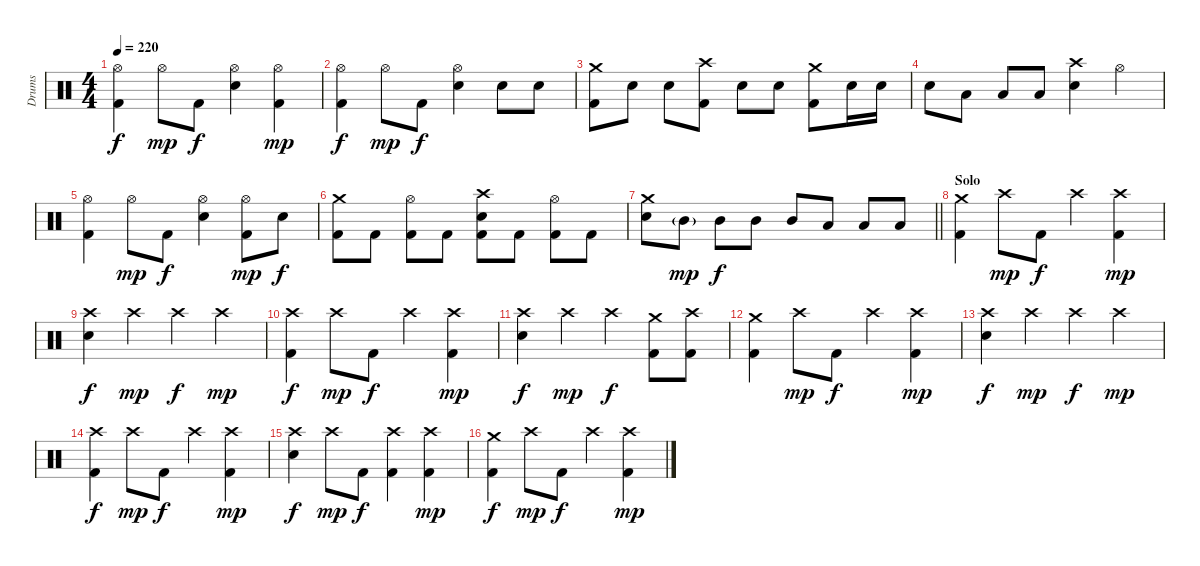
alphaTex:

\track ("Drums" "Drums") {instrument percussion}
\staff {score}
\articulation defaults
\ts (4 4)
\tempo 220
\clef neutral
\ks c
("Hi-Hat (open)" "Kick (hit) 2").4{dy f} "Hi-Hat (open)".8{dy mp} "Kick (hit) 2".8{dy f} ("Hi-Hat (open)" "Electric Snare (hit)").4 ("Hi-Hat (open)" "Kick (hit) 2").4{dy mp} |
("Hi-Hat (open)" "Kick (hit) 2").4{dy f} "Hi-Hat (open)".8{dy mp} "Kick (hit) 2".8{dy f} ("Hi-Hat (open)" "Electric Snare (hit)").4 "Electric Snare (hit)".8 "Electric Snare (hit)".8 |
("Crash medium (hit)" "Kick (hit) 2").8 "Electric Snare (hit)".8 "Electric Snare (hit)".8 ("Crash high (hit)" "Kick (hit) 2").8 "Electric Snare (hit)".8 "Electric Snare (hit)".8 ("Crash medium (hit)" "Kick (hit) 2").8 "Electric Snare (hit)".16 "Electric Snare (hit)".16 |
"Electric Snare (hit)".8 "Low Tom (hit)".8 "Low Tom (hit)".8 "Low Tom (hit)".8 ("Electric Snare (hit)" "Crash high (hit)").4 "Hi-Hat (open)".4 |
("Hi-Hat (open)" "Kick (hit) 2").4 "Hi-Hat (open)".8{dy mp} "Kick (hit) 2".8{dy f} ("Hi-Hat (open)" "Electric Snare (hit)").4 ("Hi-Hat (open)" "Kick (hit) 2").8{dy mp} "Electric Snare (hit)".8{dy f} |
("Kick (hit) 2" "Crash medium (hit)").8 "Kick (hit) 2".8 ("Kick (hit) 2" "Hi-Hat (open)").8 "Kick (hit) 2".8 ("Kick (hit) 2" "Crash high (hit)" "Electric Snare (hit)").8 "Kick (hit) 2".8 ("Kick (hit) 2" "Hi-Hat (open)").8 "Kick (hit) 2".8 |
\barLineRight lightlight
("Crash medium (hit)" "Electric Snare (hit)").8 "Mid Tom (hit)"{g}.8{dy mp} "Mid Tom (hit)".8{dy f} "Mid Tom (hit)".8 "Mid Tom (hit)".8 "Low Tom (hit)".8 "Low Tom (hit)".8 "Low Floor Tom (hit)".8 |
\section ("" "Solo")
("Crash medium (hit)" "Kick (hit) 2").4 "Crash high (hit)".8{dy mp} "Kick (hit) 2".8{dy f} "Crash high (hit)".4 ("Crash high (hit)" "Kick (hit) 2").4{dy mp} |
("Crash high (hit)" "Electric Snare (hit)").4{dy f} "Crash high (hit)".4{dy mp} "Crash high (hit)".4{dy f} "Crash high (hit)".4{dy mp} |
("Crash high (hit)" "Kick (hit) 2").4{dy f} "Crash high (hit)".8{dy mp} "Kick (hit) 2".8{dy f} "Crash high (hit)".4 ("Crash high (hit)" "Kick (hit) 2").4{dy mp} |
("Crash high (hit)" "Electric Snare (hit)").4{dy f} "Crash high (hit)".4{dy mp} "Crash high (hit)".4{dy f} ("Crash medium (hit)" "Kick (hit) 2").8 ("Crash high (hit)" "Kick (hit) 2").8 |
("Crash medium (hit)" "Kick (hit) 2").4 "Crash high (hit)".8{dy mp} "Kick (hit) 2".8{dy f} "Crash high (hit)".4 ("Crash high (hit)" "Kick (hit) 2").4{dy mp} |
("Crash high (hit)" "Electric Snare (hit)").4{dy f} "Crash high (hit)".4{dy mp} "Crash high (hit)".4{dy f} "Crash high (hit)".4{dy mp} |
("Crash high (hit)" "Kick (hit) 2").4{dy f} "Crash high (hit)".8{dy mp} "Kick (hit) 2".8{dy f} "Crash high (hit)".4 ("Crash high (hit)" "Kick (hit) 2").4{dy mp} |
("Crash high (hit)" "Electric Snare (hit)").4{dy f} "Crash high (hit)".8{dy mp} "Kick (hit) 2".8{dy f} ("Crash high (hit)" "Kick (hit) 2").4 ("Crash high (hit)" "Kick (hit) 2").4{dy mp} |
("Crash medium (hit)" "Kick (hit) 2").4{dy f} "Crash high (hit)".8{dy mp} "Kick (hit) 2".8{dy f} "Crash high (hit)".4 ("Crash high (hit)" "Kick (hit) 2").4{dy mp}
